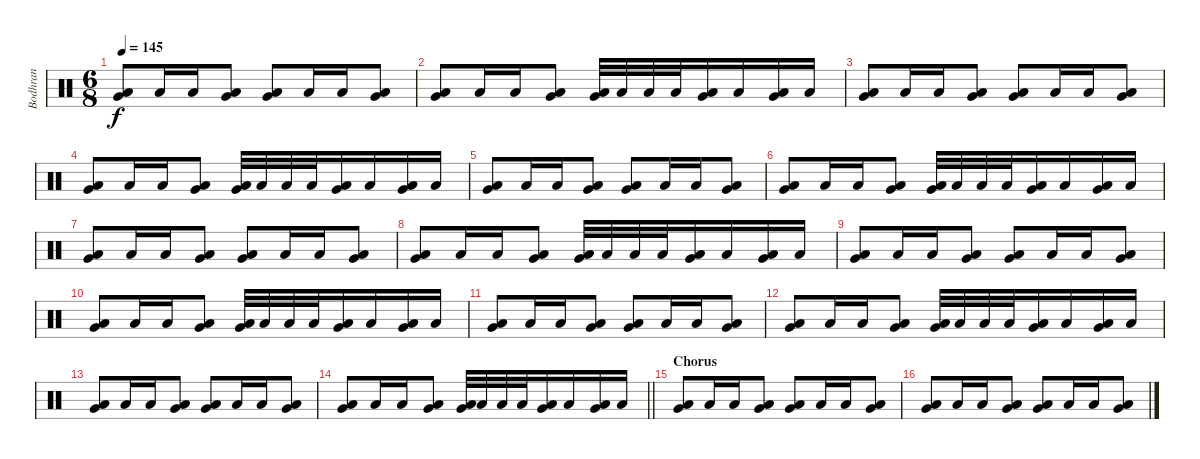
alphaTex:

\track ("Bodhran" "Bodhran") {instrument percussion}
\staff {score}
\articulation defaults
\ts (6 8)
\tempo 145
\clef neutral
\ks c
("Very Low Tom (hit)" "Low Floor Tom (hit)").8{dy f} "Low Floor Tom (hit)".16 "Low Floor Tom (hit)".16 ("Very Low Tom (hit)" "Low Floor Tom (hit)").8 ("Very Low Tom (hit)" "Low Floor Tom (hit)").8 "Low Floor Tom (hit)".16 "Low Floor Tom (hit)".16 ("Very Low Tom (hit)" "Low Floor Tom (hit)").8 |
("Very Low Tom (hit)" "Low Floor Tom (hit)").8 "Low Floor Tom (hit)".16 "Low Floor Tom (hit)".16 ("Very Low Tom (hit)" "Low Floor Tom (hit)").8 ("Very Low Tom (hit)" "Low Floor Tom (hit)").32 "Low Floor Tom (hit)".32 "Low Floor Tom (hit)".32 "Low Floor Tom (hit)".32 ("Very Low Tom (hit)" "Low Floor Tom (hit)").16 "Low Floor Tom (hit)".16 ("Very Low Tom (hit)" "Low Floor Tom (hit)").16 "Low Floor Tom (hit)".16 |
("Very Low Tom (hit)" "Low Floor Tom (hit)").8 "Low Floor Tom (hit)".16 "Low Floor Tom (hit)".16 ("Very Low Tom (hit)" "Low Floor Tom (hit)").8 ("Very Low Tom (hit)" "Low Floor Tom (hit)").8 "Low Floor Tom (hit)".16 "Low Floor Tom (hit)".16 ("Very Low Tom (hit)" "Low Floor Tom (hit)").8 |
("Very Low Tom (hit)" "Low Floor Tom (hit)").8 "Low Floor Tom (hit)".16 "Low Floor Tom (hit)".16 ("Very Low Tom (hit)" "Low Floor Tom (hit)").8 ("Very Low Tom (hit)" "Low Floor Tom (hit)").32 "Low Floor Tom (hit)".32 "Low Floor Tom (hit)".32 "Low Floor Tom (hit)".32 ("Very Low Tom (hit)" "Low Floor Tom (hit)").16 "Low Floor Tom (hit)".16 ("Very Low Tom (hit)" "Low Floor Tom (hit)").16 "Low Floor Tom (hit)".16 |
("Very Low Tom (hit)" "Low Floor Tom (hit)").8 "Low Floor Tom (hit)".16 "Low Floor Tom (hit)".16 ("Very Low Tom (hit)" "Low Floor Tom (hit)").8 ("Very Low Tom (hit)" "Low Floor Tom (hit)").8 "Low Floor Tom (hit)".16 "Low Floor Tom (hit)".16 ("Very Low Tom (hit)" "Low Floor Tom (hit)").8 |
("Very Low Tom (hit)" "Low Floor Tom (hit)").8 "Low Floor Tom (hit)".16 "Low Floor Tom (hit)".16 ("Very Low Tom (hit)" "Low Floor Tom (hit)").8 ("Very Low Tom (hit)" "Low Floor Tom (hit)").32 "Low Floor Tom (hit)".32 "Low Floor Tom (hit)".32 "Low Floor Tom (hit)".32 ("Very Low Tom (hit)" "Low Floor Tom (hit)").16 "Low Floor Tom (hit)".16 ("Very Low Tom (hit)" "Low Floor Tom (hit)").16 "Low Floor Tom (hit)".16 |
("Very Low Tom (hit)" "Low Floor Tom (hit)").8 "Low Floor Tom (hit)".16 "Low Floor Tom (hit)".16 ("Very Low Tom (hit)" "Low Floor Tom (hit)").8 ("Very Low Tom (hit)" "Low Floor Tom (hit)").8 "Low Floor Tom (hit)".16 "Low Floor Tom (hit)".16 ("Very Low Tom (hit)" "Low Floor Tom (hit)").8 |
("Very Low Tom (hit)" "Low Floor Tom (hit)").8 "Low Floor Tom (hit)".16 "Low Floor Tom (hit)".16 ("Very Low Tom (hit)" "Low Floor Tom (hit)").8 ("Very Low Tom (hit)" "Low Floor Tom (hit)").32 "Low Floor Tom (hit)".32 "Low Floor Tom (hit)".32 "Low Floor Tom (hit)".32 ("Very Low Tom (hit)" "Low Floor Tom (hit)").16 "Low Floor Tom (hit)".16 ("Very Low Tom (hit)" "Low Floor Tom (hit)").16 "Low Floor Tom (hit)".16 |
("Very Low Tom (hit)" "Low Floor Tom (hit)").8 "Low Floor Tom (hit)".16 "Low Floor Tom (hit)".16 ("Very Low Tom (hit)" "Low Floor Tom (hit)").8 ("Very Low Tom (hit)" "Low Floor Tom (hit)").8 "Low Floor Tom (hit)".16 "Low Floor Tom (hit)".16 ("Very Low Tom (hit)" "Low Floor Tom (hit)").8 |
("Very Low Tom (hit)" "Low Floor Tom (hit)").8 "Low Floor Tom (hit)".16 "Low Floor Tom (hit)".16 ("Very Low Tom (hit)" "Low Floor Tom (hit)").8 ("Very Low Tom (hit)" "Low Floor Tom (hit)").32 "Low Floor Tom (hit)".32 "Low Floor Tom (hit)".32 "Low Floor Tom (hit)".32 ("Very Low Tom (hit)" "Low Floor Tom (hit)").16 "Low Floor Tom (hit)".16 ("Very Low Tom (hit)" "Low Floor Tom (hit)").16 "Low Floor Tom (hit)".16 |
("Very Low Tom (hit)" "Low Floor Tom (hit)").8 "Low Floor Tom (hit)".16 "Low Floor Tom (hit)".16 ("Very Low Tom (hit)" "Low Floor Tom (hit)").8 ("Very Low Tom (hit)" "Low Floor Tom (hit)").8 "Low Floor Tom (hit)".16 "Low Floor Tom (hit)".16 ("Very Low Tom (hit)" "Low Floor Tom (hit)").8 |
("Very Low Tom (hit)" "Low Floor Tom (hit)").8 "Low Floor Tom (hit)".16 "Low Floor Tom (hit)".16 ("Very Low Tom (hit)" "Low Floor Tom (hit)").8 ("Very Low Tom (hit)" "Low Floor Tom (hit)").32 "Low Floor Tom (hit)".32 "Low Floor Tom (hit)".32 "Low Floor Tom (hit)".32 ("Very Low Tom (hit)" "Low Floor Tom (hit)").16 "Low Floor Tom (hit)".16 ("Very Low Tom (hit)" "Low Floor Tom (hit)").16 "Low Floor Tom (hit)".16 |
("Very Low Tom (hit)" "Low Floor Tom (hit)").8 "Low Floor Tom (hit)".16 "Low Floor Tom (hit)".16 ("Very Low Tom (hit)" "Low Floor Tom (hit)").8 ("Very Low Tom (hit)" "Low Floor Tom (hit)").8 "Low Floor Tom (hit)".16 "Low Floor Tom (hit)".16 ("Very Low Tom (hit)" "Low Floor Tom (hit)").8 |
\barLineRight lightlight
("Very Low Tom (hit)" "Low Floor Tom (hit)").8 "Low Floor Tom (hit)".16 "Low Floor Tom (hit)".16 ("Very Low Tom (hit)" "Low Floor Tom (hit)").8 ("Very Low Tom (hit)" "Low Floor Tom (hit)").32 "Low Floor Tom (hit)".32 "Low Floor Tom (hit)".32 "Low Floor Tom (hit)".32 ("Very Low Tom (hit)" "Low Floor Tom (hit)").16 "Low Floor Tom (hit)".16 ("Very Low Tom (hit)" "Low Floor Tom (hit)").16 "Low Floor Tom (hit)".16 |
\section ("" "Chorus")
("Very Low Tom (hit)" "Low Floor Tom (hit)").8 "Low Floor Tom (hit)".16 "Low Floor Tom (hit)".16 ("Very Low Tom (hit)" "Low Floor Tom (hit)").8 ("Very Low Tom (hit)" "Low Floor Tom (hit)").8 "Low Floor Tom (hit)".16 "Low Floor Tom (hit)".16 ("Very Low Tom (hit)" "Low Floor Tom (hit)").8 |
("Very Low Tom (hit)" "Low Floor Tom (hit)").8 "Low Floor Tom (hit)".16 "Low Floor Tom (hit)".16 ("Very Low Tom (hit)" "Low Floor Tom (hit)").8 ("Very Low Tom (hit)" "Low Floor Tom (hit)").8 "Low Floor Tom (hit)".16 "Low Floor Tom (hit)".16 ("Very Low Tom (hit)" "Low Floor Tom (hit)").8
